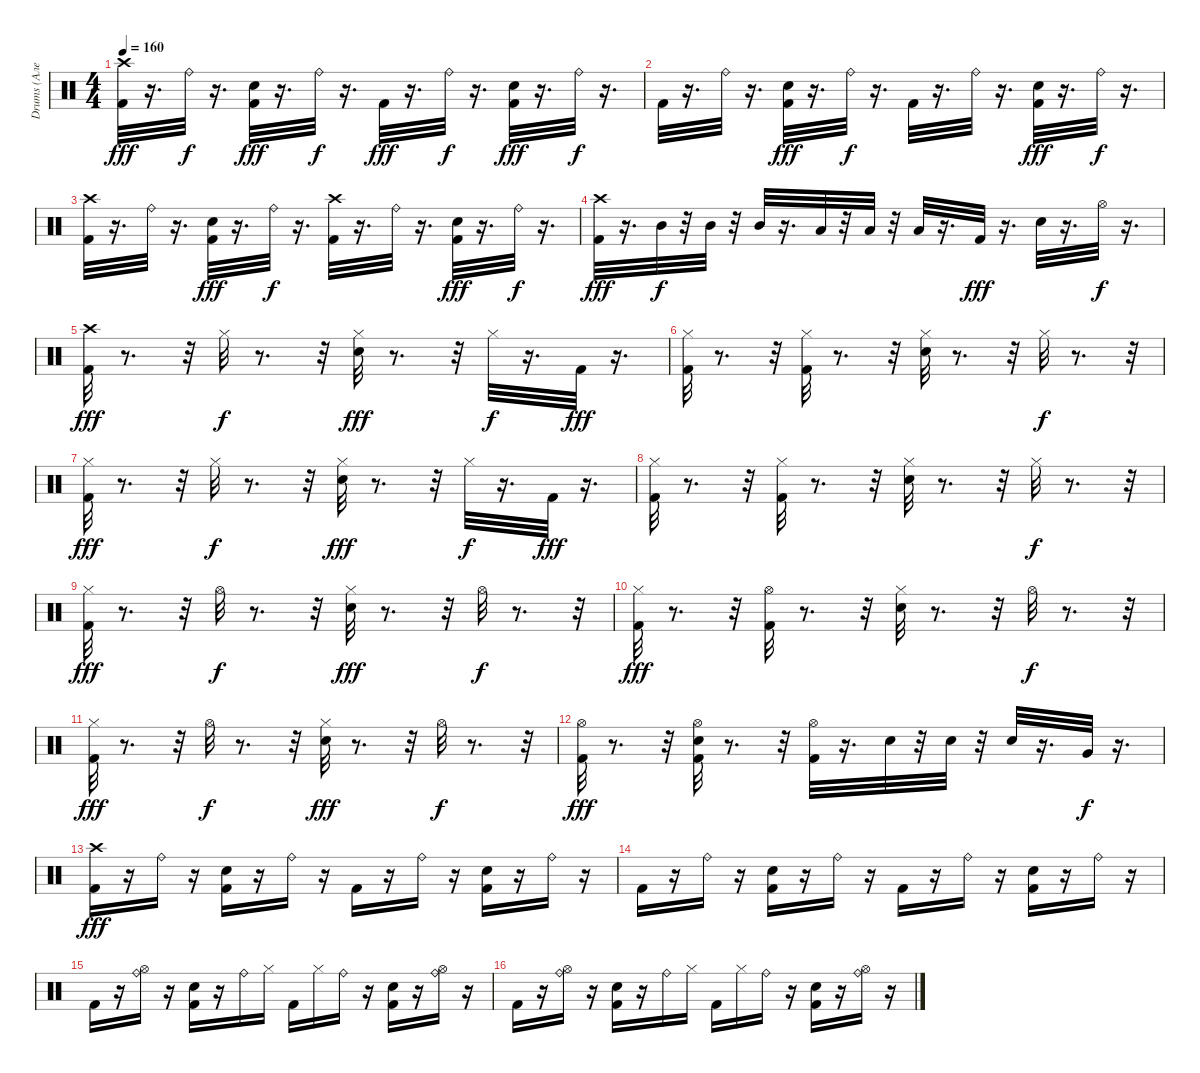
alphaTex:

\track ("Drums (Алексей Барзилович)" "Drums (Але") {instrument percussion}
\staff {score}
\articulation defaults
\ts (4 4)
\tempo 160
\clef neutral
\ks c
("Crash high (hit)" "Kick (hit) 2").32{dy fff} r.16{d} "Ride (bell)".32{dy f} r.16{d} ("Electric Snare (hit)" "Kick (hit) 2").32{dy fff} r.16{d} "Ride (bell)".32{dy f} r.16{d} "Kick (hit) 2".32{dy fff} r.16{d} "Ride (bell)".32{dy f} r.16{d} ("Electric Snare (hit)" "Kick (hit) 2").32{dy fff} r.16{d} "Ride (bell)".32{dy f} r.16{d} |
"Kick (hit) 2".32 r.16{d} "Ride (bell)".32 r.16{d} ("Electric Snare (hit)" "Kick (hit) 2").32{dy fff} r.16{d} "Ride (bell)".32{dy f} r.16{d} "Kick (hit) 2".32 r.16{d} "Ride (bell)".32 r.16{d} ("Kick (hit) 2" "Electric Snare (hit)").32{dy fff} r.16{d} "Ride (bell)".32{dy f} r.16{d} |
("Kick (hit) 2" "Crash high (hit)").32 r.16{d} "Ride (bell)".32 r.16{d} ("Electric Snare (hit)" "Kick (hit) 2").32{dy fff} r.16{d} "Ride (bell)".32{dy f} r.16{d} ("Kick (hit) 2" "Crash high (hit)").32 r.16{d} "Ride (bell)".32 r.16{d} ("Electric Snare (hit)" "Kick (hit) 2").32{dy fff} r.16{d} "Ride (bell)".32{dy f} r.16{d} |
("Kick (hit) 2" "Crash high (hit)").32{dy fff} r.16{d} "Mid Tom (hit)".32{dy f} r.32 "Mid Tom (hit)".32 r.32 "Mid Tom (hit)".32 r.16{d} "Low Tom (hit)".32 r.32 "Low Tom (hit)".32 r.32 "Low Tom (hit)".32 r.16{d} "Kick (hit) 2".32{dy fff} r.16{d} "Electric Snare (hit)".32 r.16{d} "Hi-Hat (open)".32{dy f} r.16{d} |
("Kick (hit) 2" "Crash high (hit)").32{dy fff} r.8{d} r.32 "Hi-Hat (closed)".32{dy f} r.8{d} r.32 ("Hi-Hat (closed)" "Electric Snare (hit)").32{dy fff} r.8{d} r.32 "Hi-Hat (closed)".32{dy f} r.16{d} "Kick (hit) 2".32{dy fff} r.16{d} |
("Hi-Hat (closed)" "Kick (hit) 2").32 r.8{d} r.32 ("Hi-Hat (closed)" "Kick (hit) 2").32 r.8{d} r.32 ("Hi-Hat (closed)" "Electric Snare (hit)").32 r.8{d} r.32 "Hi-Hat (closed)".32{dy f} r.8{d} r.32 |
("Hi-Hat (closed)" "Kick (hit) 2").32{dy fff} r.8{d} r.32 "Hi-Hat (closed)".32{dy f} r.8{d} r.32 ("Hi-Hat (closed)" "Electric Snare (hit)").32{dy fff} r.8{d} r.32 "Hi-Hat (closed)".32{dy f} r.16{d} "Kick (hit) 2".32{dy fff} r.16{d} |
("Hi-Hat (closed)" "Kick (hit) 2").32 r.8{d} r.32 ("Kick (hit) 2" "Hi-Hat (closed)").32 r.8{d} r.32 ("Hi-Hat (closed)" "Electric Snare (hit)").32 r.8{d} r.32 "Hi-Hat (closed)".32{dy f} r.8{d} r.32 |
("Hi-Hat (closed)" "Kick (hit) 2").32{dy fff} r.8{d} r.32 "Hi-Hat (open)".32{dy f} r.8{d} r.32 ("Hi-Hat (closed)" "Electric Snare (hit)").32{dy fff} r.8{d} r.32 "Hi-Hat (open)".32{dy f} r.8{d} r.32 |
("Kick (hit) 2" "Hi-Hat (closed)").32{dy fff} r.8{d} r.32 ("Hi-Hat (open)" "Kick (hit) 2").32 r.8{d} r.32 ("Electric Snare (hit)" "Hi-Hat (closed)").32 r.8{d} r.32 "Hi-Hat (open)".32{dy f} r.8{d} r.32 |
("Hi-Hat (closed)" "Kick (hit) 2").32{dy fff} r.8{d} r.32 "Hi-Hat (open)".32{dy f} r.8{d} r.32 ("Hi-Hat (closed)" "Electric Snare (hit)").32{dy fff} r.8{d} r.32 "Hi-Hat (open)".32{dy f} r.8{d} r.32 |
("Hi-Hat (open)" "Kick (hit) 2").32{dy fff} r.8{d} r.32 ("Hi-Hat (open)" "Electric Snare (hit)" "Kick (hit) 2").32 r.8{d} r.32 ("Hi-Hat (open)" "Kick (hit) 2").32 r.16{d} "Electric Snare (hit)".32 r.32 "Electric Snare (hit)".32 r.32 "Electric Snare (hit)".32 r.16{d} "Very Low Tom (hit)".32{dy f} r.16{d} |
("Crash high (hit)" "Kick (hit) 2").16{dy fff} r.16 "Ride (bell)".16 r.16 ("Electric Snare (hit)" "Kick (hit) 2").16 r.16 "Ride (bell)".16 r.16 "Kick (hit) 2".16 r.16 "Ride (bell)".16 r.16 ("Kick (hit) 2" "Electric Snare (hit)").16 r.16 "Ride (bell)".16 r.16 |
"Kick (hit) 2".16 r.16 "Ride (bell)".16 r.16 ("Kick (hit) 2" "Electric Snare (hit)").16 r.16 "Ride (bell)".16 r.16 "Kick (hit) 2".16 r.16 "Ride (bell)".16 r.16 ("Kick (hit) 2" "Electric Snare (hit)").16 r.16 "Ride (bell)".16 r.16 |
"Kick (hit) 2".16 r.16 ("Ride (bell)" "Hi-Hat (open)").16 r.16 ("Kick (hit) 2" "Electric Snare (hit)").16 r.16 "Ride (bell)".16 "Hi-Hat (closed)".16 "Kick (hit) 2".16 "Hi-Hat (closed)".16 "Ride (bell)".16 r.16 ("Kick (hit) 2" "Electric Snare (hit)").16 r.16 ("Ride (bell)" "Hi-Hat (open)").16 r.16 |
"Kick (hit) 2".16 r.16 ("Hi-Hat (open)" "Ride (bell)").16 r.16 ("Kick (hit) 2" "Electric Snare (hit)").16 r.16 "Ride (bell)".16 "Hi-Hat (closed)".16 "Kick (hit) 2".16 "Hi-Hat (closed)".16 "Ride (bell)".16 r.16 ("Electric Snare (hit)" "Kick (hit) 2").16 r.16 ("Hi-Hat (open)" "Ride (bell)").16 r.16
